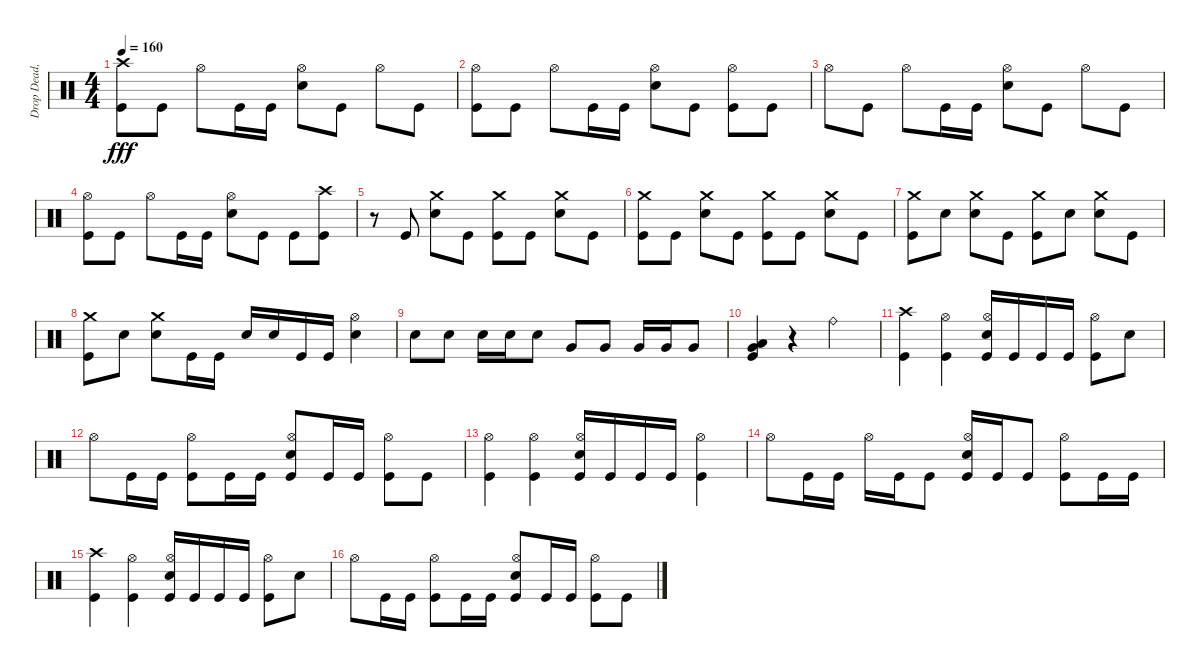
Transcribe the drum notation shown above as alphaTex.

\track ("Drop Dead, Johnny" "Drop Dead,") {instrument percussion}
\staff {score}
\articulation defaults
\ts (4 4)
\tempo 160
\clef neutral
\ks c
("Crash high (hit)" "Kick (hit)").8{dy fff} "Kick (hit)".8 "Hi-Hat (open)".8 "Kick (hit)".16 "Kick (hit)".16 ("Hi-Hat (open)" "Electric Snare (hit)").8 "Kick (hit)".8 "Hi-Hat (open)".8 "Kick (hit)".8 |
("Hi-Hat (open)" "Kick (hit)").8 "Kick (hit)".8 "Hi-Hat (open)".8 "Kick (hit)".16 "Kick (hit)".16 ("Hi-Hat (open)" "Electric Snare (hit)").8 "Kick (hit)".8 ("Hi-Hat (open)" "Kick (hit)").8 "Kick (hit)".8 |
"Hi-Hat (open)".8 "Kick (hit)".8 "Hi-Hat (open)".8 "Kick (hit)".16 "Kick (hit)".16 ("Hi-Hat (open)" "Electric Snare (hit)").8 "Kick (hit)".8 "Hi-Hat (open)".8 "Kick (hit)".8 |
("Hi-Hat (open)" "Kick (hit)").8 "Kick (hit)".8 "Hi-Hat (open)".8 "Kick (hit)".16 "Kick (hit)".16 ("Hi-Hat (open)" "Electric Snare (hit)").8 "Kick (hit)".8 "Kick (hit)".8 ("Crash high (hit)" "Kick (hit)").8 |
r.8 "Kick (hit)".8 ("Crash medium (hit)" "Electric Snare (hit)").8 "Kick (hit)".8 ("Crash medium (hit)" "Kick (hit)").8 "Kick (hit)".8 ("Crash medium (hit)" "Electric Snare (hit)").8 "Kick (hit)".8 |
("Crash medium (hit)" "Kick (hit)").8 "Kick (hit)".8 ("Crash medium (hit)" "Electric Snare (hit)").8 "Kick (hit)".8 ("Crash medium (hit)" "Kick (hit)").8 "Kick (hit)".8 ("Crash medium (hit)" "Electric Snare (hit)").8 "Kick (hit)".8 |
("Crash medium (hit)" "Kick (hit)").8 "Electric Snare (hit)".8 ("Crash medium (hit)" "Electric Snare (hit)").8 "Kick (hit)".8 ("Crash medium (hit)" "Kick (hit)").8 "Electric Snare (hit)".8 ("Crash medium (hit)" "Electric Snare (hit)").8 "Kick (hit)".8 |
("Crash medium (hit)" "Kick (hit)").8 "Electric Snare (hit)".8 ("Crash medium (hit)" "Electric Snare (hit)").8 "Kick (hit)".16 "Kick (hit)".16 "Electric Snare (hit)".16 "Electric Snare (hit)".16 "Kick (hit)".16 "Kick (hit)".16 ("Hi-Hat (open)" "Electric Snare (hit)").4 |
"Electric Snare (hit)".8 "Electric Snare (hit)".8 "Electric Snare (hit)".16 "Electric Snare (hit)".16 "Electric Snare (hit)".8 "Very Low Tom (hit)".8 "Very Low Tom (hit)".8 "Very Low Tom (hit)".16 "Very Low Tom (hit)".16 "Very Low Tom (hit)".8 |
("Very Low Tom (hit)" "Low Floor Tom (hit)" "Kick (hit)").4 r.4 "Ride (bell)".2 |
("Crash high (hit)" "Kick (hit)").4 ("Hi-Hat (open)" "Kick (hit)").4 ("Hi-Hat (open)" "Electric Snare (hit)" "Kick (hit)").16 "Kick (hit)".16 "Kick (hit)".16 "Kick (hit)".16 ("Hi-Hat (open)" "Kick (hit)").8 "Electric Snare (hit)".8 |
"Hi-Hat (open)".8 "Kick (hit)".16 "Kick (hit)".16 ("Hi-Hat (open)" "Kick (hit)").8 "Kick (hit)".16 "Kick (hit)".16 ("Hi-Hat (open)" "Electric Snare (hit)" "Kick (hit)").8 "Kick (hit)".16 "Kick (hit)".16 ("Hi-Hat (open)" "Kick (hit)").8 "Kick (hit)".8 |
("Hi-Hat (open)" "Kick (hit)").4 ("Hi-Hat (open)" "Kick (hit)").4 ("Hi-Hat (open)" "Electric Snare (hit)" "Kick (hit)").16 "Kick (hit)".16 "Kick (hit)".16 "Kick (hit)".16 ("Hi-Hat (open)" "Kick (hit)").4 |
"Hi-Hat (open)".8 "Kick (hit)".16 "Kick (hit)".16 "Hi-Hat (open)".16 "Kick (hit)".16 "Kick (hit)".8 ("Hi-Hat (open)" "Electric Snare (hit)" "Kick (hit)").16 "Kick (hit)".16 "Kick (hit)".8 ("Hi-Hat (open)" "Kick (hit)").8 "Kick (hit)".16 "Kick (hit)".16 |
("Crash high (hit)" "Kick (hit)").4 ("Hi-Hat (open)" "Kick (hit)").4 ("Hi-Hat (open)" "Electric Snare (hit)" "Kick (hit)").16 "Kick (hit)".16 "Kick (hit)".16 "Kick (hit)".16 ("Hi-Hat (open)" "Kick (hit)").8 "Electric Snare (hit)".8 |
"Hi-Hat (open)".8 "Kick (hit)".16 "Kick (hit)".16 ("Hi-Hat (open)" "Kick (hit)").8 "Kick (hit)".16 "Kick (hit)".16 ("Hi-Hat (open)" "Electric Snare (hit)" "Kick (hit)").8 "Kick (hit)".16 "Kick (hit)".16 ("Hi-Hat (open)" "Kick (hit)").8 "Kick (hit)".8
